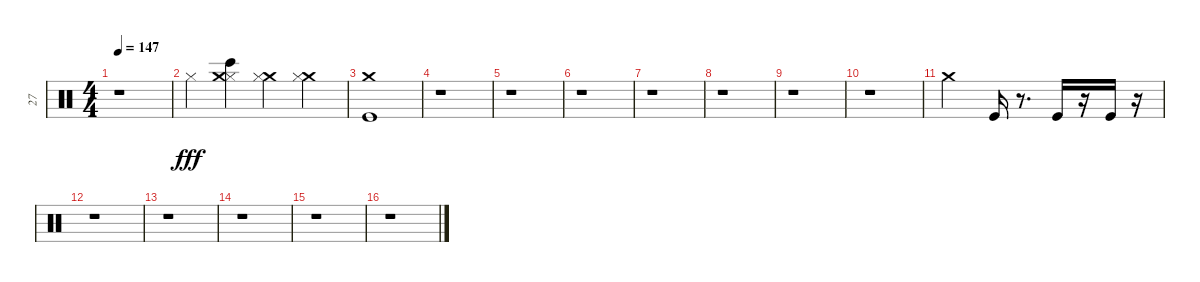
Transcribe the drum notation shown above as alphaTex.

\track ("27" "27") {instrument percussion}
\staff {score}
\articulation defaults
\ts (4 4)
\tempo 147
\clef neutral
\ks c
r.1{dy fff} |
"Hi-Hat (closed)".4 ("Hi-Hat (closed)" "Crash medium (hit)" "Bongo High (hit)").4 ("Crash medium (hit)" "Hi-Hat (closed)").4 ("Crash medium (hit)" "Hi-Hat (closed)").4 |
("Crash medium (hit)" "Kick (hit)").1 |
r.1 |
r.1 |
r.1 |
r.1 |
r.1 |
r.1 |
r.1 |
"Crash medium (hit)".2 "Kick (hit)".16 r.8{d} "Kick (hit)".16 r.16 "Kick (hit)".16 r.16 |
r.1 |
r.1 |
r.1 |
r.1 |
r.1
